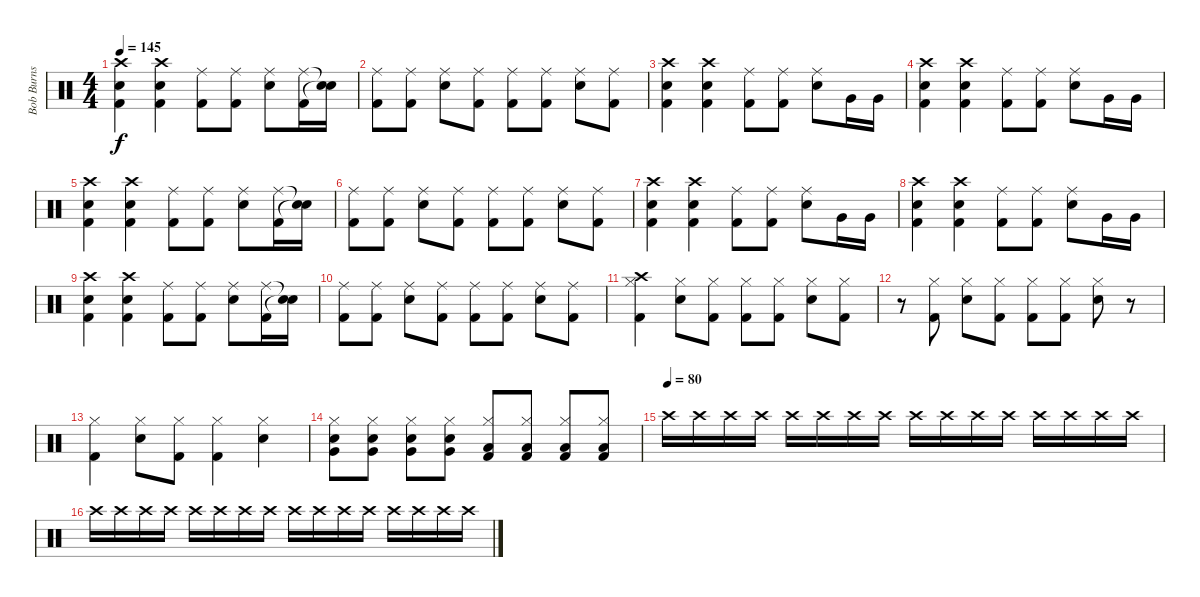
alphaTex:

\track ("Bob Burns (Drums)" "Bob Burns ") {instrument percussion}
\staff {score}
\articulation defaults
\ts (4 4)
\tempo 145
\clef neutral
\ks c
("Crash high (hit)" "Electric Snare (hit)" "Kick (hit) 2").4{dy f} ("Crash high (hit)" "Electric Snare (hit)" "Kick (hit) 2").4 ("Ride (middle)" "Kick (hit) 2").8 ("Ride (middle)" "Kick (hit) 2").8 ("Ride (middle)" "Electric Snare (hit)").8 ("Ride (middle)" "Kick (hit) 2").16 ("Snare (hit)"{t} "Snare (hit)"{t}).16 |
("Ride (middle)" "Kick (hit) 2").8 ("Ride (middle)" "Kick (hit) 2").8 ("Ride (middle)" "Electric Snare (hit)").8 ("Ride (middle)" "Kick (hit) 2").8 ("Ride (middle)" "Kick (hit) 2").8 ("Ride (middle)" "Kick (hit) 2").8 ("Ride (middle)" "Electric Snare (hit)").8 ("Ride (middle)" "Kick (hit) 2").8 |
("Crash high (hit)" "Electric Snare (hit)" "Kick (hit) 2").4 ("Crash high (hit)" "Electric Snare (hit)" "Kick (hit) 2").4 ("Ride (middle)" "Kick (hit) 2").8 ("Ride (middle)" "Kick (hit) 2").8 ("Ride (middle)" "Electric Snare (hit)").8 "Very Low Tom (hit)".16 "Very Low Tom (hit)".16 |
("Crash high (hit)" "Electric Snare (hit)" "Kick (hit) 2").4 ("Crash high (hit)" "Electric Snare (hit)" "Kick (hit) 2").4 ("Ride (middle)" "Kick (hit) 2").8 ("Ride (middle)" "Kick (hit) 2").8 ("Ride (middle)" "Electric Snare (hit)").8 "Very Low Tom (hit)".16 "Very Low Tom (hit)".16 |
("Crash high (hit)" "Electric Snare (hit)" "Kick (hit) 2").4 ("Crash high (hit)" "Electric Snare (hit)" "Kick (hit) 2").4 ("Ride (middle)" "Kick (hit) 2").8 ("Ride (middle)" "Kick (hit) 2").8 ("Ride (middle)" "Electric Snare (hit)").8 ("Ride (middle)" "Kick (hit) 2").16 ("Snare (hit)"{t} "Snare (hit)"{t}).16 |
("Ride (middle)" "Kick (hit) 2").8 ("Ride (middle)" "Kick (hit) 2").8 ("Ride (middle)" "Electric Snare (hit)").8 ("Ride (middle)" "Kick (hit) 2").8 ("Ride (middle)" "Kick (hit) 2").8 ("Ride (middle)" "Kick (hit) 2").8 ("Ride (middle)" "Electric Snare (hit)").8 ("Ride (middle)" "Kick (hit) 2").8 |
("Crash high (hit)" "Electric Snare (hit)" "Kick (hit) 2").4 ("Crash high (hit)" "Electric Snare (hit)" "Kick (hit) 2").4 ("Ride (middle)" "Kick (hit) 2").8 ("Ride (middle)" "Kick (hit) 2").8 ("Ride (middle)" "Electric Snare (hit)").8 "Very Low Tom (hit)".16 "Very Low Tom (hit)".16 |
("Crash high (hit)" "Electric Snare (hit)" "Kick (hit) 2").4 ("Crash high (hit)" "Electric Snare (hit)" "Kick (hit) 2").4 ("Ride (middle)" "Kick (hit) 2").8 ("Ride (middle)" "Kick (hit) 2").8 ("Ride (middle)" "Electric Snare (hit)").8 "Very Low Tom (hit)".16 "Very Low Tom (hit)".16 |
("Crash high (hit)" "Electric Snare (hit)" "Kick (hit) 2").4 ("Crash high (hit)" "Electric Snare (hit)" "Kick (hit) 2").4 ("Ride (middle)" "Kick (hit) 2").8 ("Ride (middle)" "Kick (hit) 2").8 ("Ride (middle)" "Electric Snare (hit)").8 ("Ride (middle)" "Kick (hit) 2").16 ("Snare (hit)"{t} "Snare (hit)"{t}).16 |
("Ride (middle)" "Kick (hit) 2").8 ("Ride (middle)" "Kick (hit) 2").8 ("Ride (middle)" "Electric Snare (hit)").8 ("Ride (middle)" "Kick (hit) 2").8 ("Ride (middle)" "Kick (hit) 2").8 ("Ride (middle)" "Kick (hit) 2").8 ("Ride (middle)" "Electric Snare (hit)").8 ("Ride (middle)" "Kick (hit) 2").8 |
("Hi-Hat (closed)" "Crash high (hit)" "Kick (hit) 2").4 ("Hi-Hat (closed)" "Electric Snare (hit)").8 ("Hi-Hat (closed)" "Kick (hit) 2").8 ("Hi-Hat (closed)" "Kick (hit) 2").8 ("Hi-Hat (closed)" "Kick (hit) 2").8 ("Hi-Hat (closed)" "Electric Snare (hit)").8 ("Hi-Hat (closed)" "Kick (hit) 2").8 |
r.8 ("Hi-Hat (closed)" "Kick (hit) 2").8 ("Hi-Hat (closed)" "Electric Snare (hit)").8 ("Hi-Hat (closed)" "Kick (hit) 2").8 ("Hi-Hat (closed)" "Kick (hit) 2").8 ("Hi-Hat (closed)" "Kick (hit) 2").8 ("Hi-Hat (closed)" "Electric Snare (hit)").8 r.8 |
("Hi-Hat (closed)" "Kick (hit) 2").4 ("Hi-Hat (closed)" "Electric Snare (hit)").8 ("Hi-Hat (closed)" "Kick (hit) 2").8 ("Hi-Hat (closed)" "Kick (hit) 2").4 ("Hi-Hat (closed)" "Electric Snare (hit)").4 |
("Hi-Hat (closed)" "Electric Snare (hit)" "Very Low Tom (hit)").8 ("Hi-Hat (closed)" "Electric Snare (hit)" "Very Low Tom (hit)").8 ("Hi-Hat (closed)" "Electric Snare (hit)" "Very Low Tom (hit)").8 ("Hi-Hat (closed)" "Electric Snare (hit)" "Very Low Tom (hit)").8 ("Hi-Hat (closed)" "Kick (hit) 2" "Low Floor Tom (hit)").8 ("Hi-Hat (closed)" "Kick (hit) 2" "Low Floor Tom (hit)").8 ("Hi-Hat (closed)" "Kick (hit) 2" "Low Floor Tom (hit)").8 ("Hi-Hat (closed)" "Kick (hit) 2" "Low Floor Tom (hit)").8 |
\tempo (80)
"Crash high (hit)".16 "Crash high (hit)".16 "Crash high (hit)".16 "Crash high (hit)".16 "Crash high (hit)".16 "Crash high (hit)".16 "Crash high (hit)".16 "Crash high (hit)".16 "Crash high (hit)".16 "Crash high (hit)".16 "Crash high (hit)".16 "Crash high (hit)".16 "Crash high (hit)".16 "Crash high (hit)".16 "Crash high (hit)".16 "Crash high (hit)".16 |
"Crash high (hit)".16 "Crash high (hit)".16 "Crash high (hit)".16 "Crash high (hit)".16 "Crash high (hit)".16 "Crash high (hit)".16 "Crash high (hit)".16 "Crash high (hit)".16 "Crash high (hit)".16 "Crash high (hit)".16 "Crash high (hit)".16 "Crash high (hit)".16 "Crash high (hit)".16 "Crash high (hit)".16 "Crash high (hit)".16 "Crash high (hit)".16
